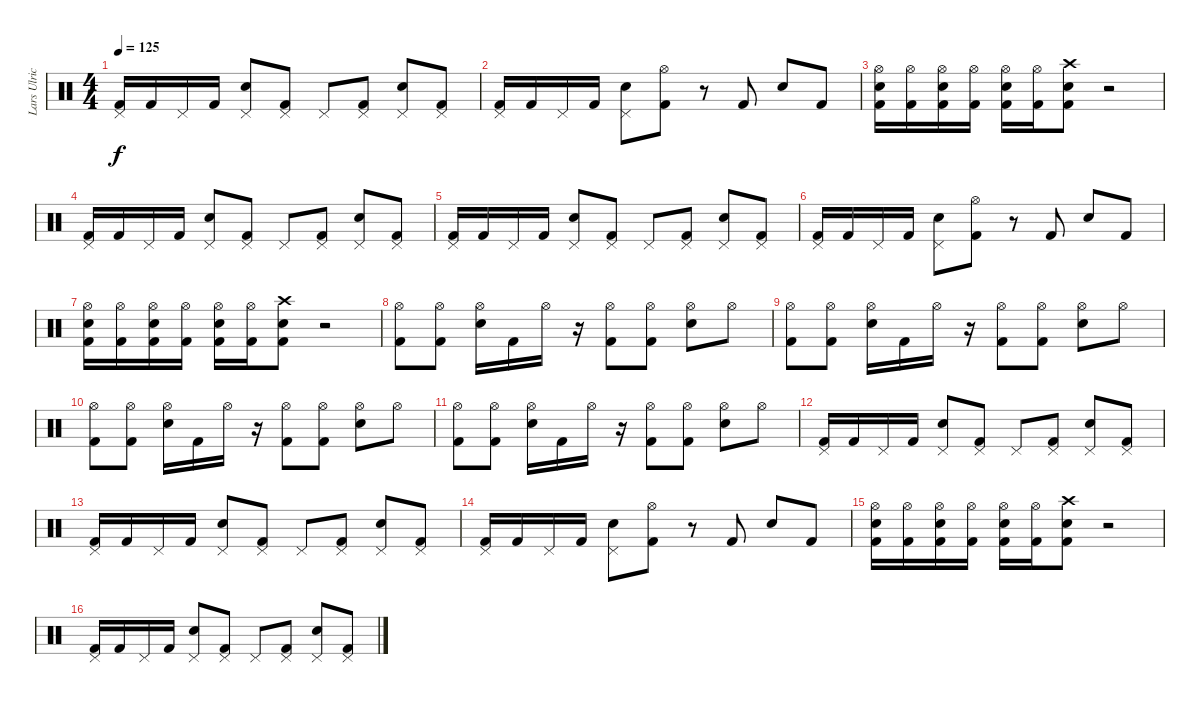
\track ("Lars Ulrich" "Lars Ulric") {instrument percussion}
\staff {score}
\articulation defaults
\ts (4 4)
\tempo 125
\clef neutral
\ks c
("Pedal Hi-Hat (hit)" "Kick (hit) 2").16{dy f} "Kick (hit) 2".16 "Pedal Hi-Hat (hit)".16 "Kick (hit) 2".16 ("Pedal Hi-Hat (hit)" "Electric Snare (hit)").8 ("Pedal Hi-Hat (hit)" "Kick (hit) 2").8 "Pedal Hi-Hat (hit)".8 ("Pedal Hi-Hat (hit)" "Kick (hit) 2").8 ("Pedal Hi-Hat (hit)" "Electric Snare (hit)").8 ("Pedal Hi-Hat (hit)" "Kick (hit) 2").8 |
("Pedal Hi-Hat (hit)" "Kick (hit) 2").16 "Kick (hit) 2".16 "Pedal Hi-Hat (hit)".16 "Kick (hit) 2".16 ("Pedal Hi-Hat (hit)" "Electric Snare (hit)").8 ("Hi-Hat (open)" "Kick (hit) 2").8 r.8 "Kick (hit) 2".8 "Electric Snare (hit)".8 "Kick (hit) 2".8 |
("Hi-Hat (open)" "Electric Snare (hit)" "Kick (hit) 2").16 ("Hi-Hat (open)" "Kick (hit) 2").16 ("Hi-Hat (open)" "Electric Snare (hit)" "Kick (hit) 2").16 ("Hi-Hat (open)" "Kick (hit) 2").16 ("Hi-Hat (open)" "Electric Snare (hit)" "Kick (hit) 2").16 ("Hi-Hat (open)" "Kick (hit) 2").16 ("Crash high (hit)" "Electric Snare (hit)" "Kick (hit) 2").8 r.2 |
("Pedal Hi-Hat (hit)" "Kick (hit) 2").16 "Kick (hit) 2".16 "Pedal Hi-Hat (hit)".16 "Kick (hit) 2".16 ("Pedal Hi-Hat (hit)" "Electric Snare (hit)").8 ("Pedal Hi-Hat (hit)" "Kick (hit) 2").8 "Pedal Hi-Hat (hit)".8 ("Pedal Hi-Hat (hit)" "Kick (hit) 2").8 ("Pedal Hi-Hat (hit)" "Electric Snare (hit)").8 ("Pedal Hi-Hat (hit)" "Kick (hit) 2").8 |
("Pedal Hi-Hat (hit)" "Kick (hit) 2").16 "Kick (hit) 2".16 "Pedal Hi-Hat (hit)".16 "Kick (hit) 2".16 ("Pedal Hi-Hat (hit)" "Electric Snare (hit)").8 ("Pedal Hi-Hat (hit)" "Kick (hit) 2").8 "Pedal Hi-Hat (hit)".8 ("Pedal Hi-Hat (hit)" "Kick (hit) 2").8 ("Pedal Hi-Hat (hit)" "Electric Snare (hit)").8 ("Pedal Hi-Hat (hit)" "Kick (hit) 2").8 |
("Pedal Hi-Hat (hit)" "Kick (hit) 2").16 "Kick (hit) 2".16 "Pedal Hi-Hat (hit)".16 "Kick (hit) 2".16 ("Pedal Hi-Hat (hit)" "Electric Snare (hit)").8 ("Hi-Hat (open)" "Kick (hit) 2").8 r.8 "Kick (hit) 2".8 "Electric Snare (hit)".8 "Kick (hit) 2".8 |
("Hi-Hat (open)" "Electric Snare (hit)" "Kick (hit) 2").16 ("Hi-Hat (open)" "Kick (hit) 2").16 ("Hi-Hat (open)" "Electric Snare (hit)" "Kick (hit) 2").16 ("Hi-Hat (open)" "Kick (hit) 2").16 ("Hi-Hat (open)" "Electric Snare (hit)" "Kick (hit) 2").16 ("Hi-Hat (open)" "Kick (hit) 2").16 ("Crash high (hit)" "Electric Snare (hit)" "Kick (hit) 2").8 r.2 |
("Hi-Hat (open)" "Kick (hit) 2").8 ("Hi-Hat (open)" "Kick (hit) 2").8 ("Hi-Hat (open)" "Electric Snare (hit)").16 "Kick (hit) 2".16 "Hi-Hat (open)".16 r.16 ("Hi-Hat (open)" "Kick (hit) 2").8 ("Hi-Hat (open)" "Kick (hit) 2").8 ("Hi-Hat (open)" "Electric Snare (hit)").8 "Hi-Hat (open)".8 |
("Hi-Hat (open)" "Kick (hit) 2").8 ("Hi-Hat (open)" "Kick (hit) 2").8 ("Hi-Hat (open)" "Electric Snare (hit)").16 "Kick (hit) 2".16 "Hi-Hat (open)".16 r.16 ("Hi-Hat (open)" "Kick (hit) 2").8 ("Hi-Hat (open)" "Kick (hit) 2").8 ("Hi-Hat (open)" "Electric Snare (hit)").8 "Hi-Hat (open)".8 |
("Hi-Hat (open)" "Kick (hit) 2").8 ("Hi-Hat (open)" "Kick (hit) 2").8 ("Hi-Hat (open)" "Electric Snare (hit)").16 "Kick (hit) 2".16 "Hi-Hat (open)".16 r.16 ("Hi-Hat (open)" "Kick (hit) 2").8 ("Hi-Hat (open)" "Kick (hit) 2").8 ("Hi-Hat (open)" "Electric Snare (hit)").8 "Hi-Hat (open)".8 |
("Hi-Hat (open)" "Kick (hit) 2").8 ("Hi-Hat (open)" "Kick (hit) 2").8 ("Hi-Hat (open)" "Electric Snare (hit)").16 "Kick (hit) 2".16 "Hi-Hat (open)".16 r.16 ("Hi-Hat (open)" "Kick (hit) 2").8 ("Hi-Hat (open)" "Kick (hit) 2").8 ("Hi-Hat (open)" "Electric Snare (hit)").8 "Hi-Hat (open)".8 |
("Pedal Hi-Hat (hit)" "Kick (hit) 2").16 "Kick (hit) 2".16 "Pedal Hi-Hat (hit)".16 "Kick (hit) 2".16 ("Pedal Hi-Hat (hit)" "Electric Snare (hit)").8 ("Pedal Hi-Hat (hit)" "Kick (hit) 2").8 "Pedal Hi-Hat (hit)".8 ("Pedal Hi-Hat (hit)" "Kick (hit) 2").8 ("Pedal Hi-Hat (hit)" "Electric Snare (hit)").8 ("Pedal Hi-Hat (hit)" "Kick (hit) 2").8 |
("Pedal Hi-Hat (hit)" "Kick (hit) 2").16 "Kick (hit) 2".16 "Pedal Hi-Hat (hit)".16 "Kick (hit) 2".16 ("Pedal Hi-Hat (hit)" "Electric Snare (hit)").8 ("Pedal Hi-Hat (hit)" "Kick (hit) 2").8 "Pedal Hi-Hat (hit)".8 ("Pedal Hi-Hat (hit)" "Kick (hit) 2").8 ("Pedal Hi-Hat (hit)" "Electric Snare (hit)").8 ("Pedal Hi-Hat (hit)" "Kick (hit) 2").8 |
("Pedal Hi-Hat (hit)" "Kick (hit) 2").16 "Kick (hit) 2".16 "Pedal Hi-Hat (hit)".16 "Kick (hit) 2".16 ("Pedal Hi-Hat (hit)" "Electric Snare (hit)").8 ("Hi-Hat (open)" "Kick (hit) 2").8 r.8 "Kick (hit) 2".8 "Electric Snare (hit)".8 "Kick (hit) 2".8 |
("Hi-Hat (open)" "Electric Snare (hit)" "Kick (hit) 2").16 ("Hi-Hat (open)" "Kick (hit) 2").16 ("Hi-Hat (open)" "Electric Snare (hit)" "Kick (hit) 2").16 ("Hi-Hat (open)" "Kick (hit) 2").16 ("Hi-Hat (open)" "Electric Snare (hit)" "Kick (hit) 2").16 ("Hi-Hat (open)" "Kick (hit) 2").16 ("Crash high (hit)" "Electric Snare (hit)" "Kick (hit) 2").8 r.2 |
("Pedal Hi-Hat (hit)" "Kick (hit) 2").16 "Kick (hit) 2".16 "Pedal Hi-Hat (hit)".16 "Kick (hit) 2".16 ("Pedal Hi-Hat (hit)" "Electric Snare (hit)").8 ("Pedal Hi-Hat (hit)" "Kick (hit) 2").8 "Pedal Hi-Hat (hit)".8 ("Pedal Hi-Hat (hit)" "Kick (hit) 2").8 ("Pedal Hi-Hat (hit)" "Electric Snare (hit)").8 ("Pedal Hi-Hat (hit)" "Kick (hit) 2").8
